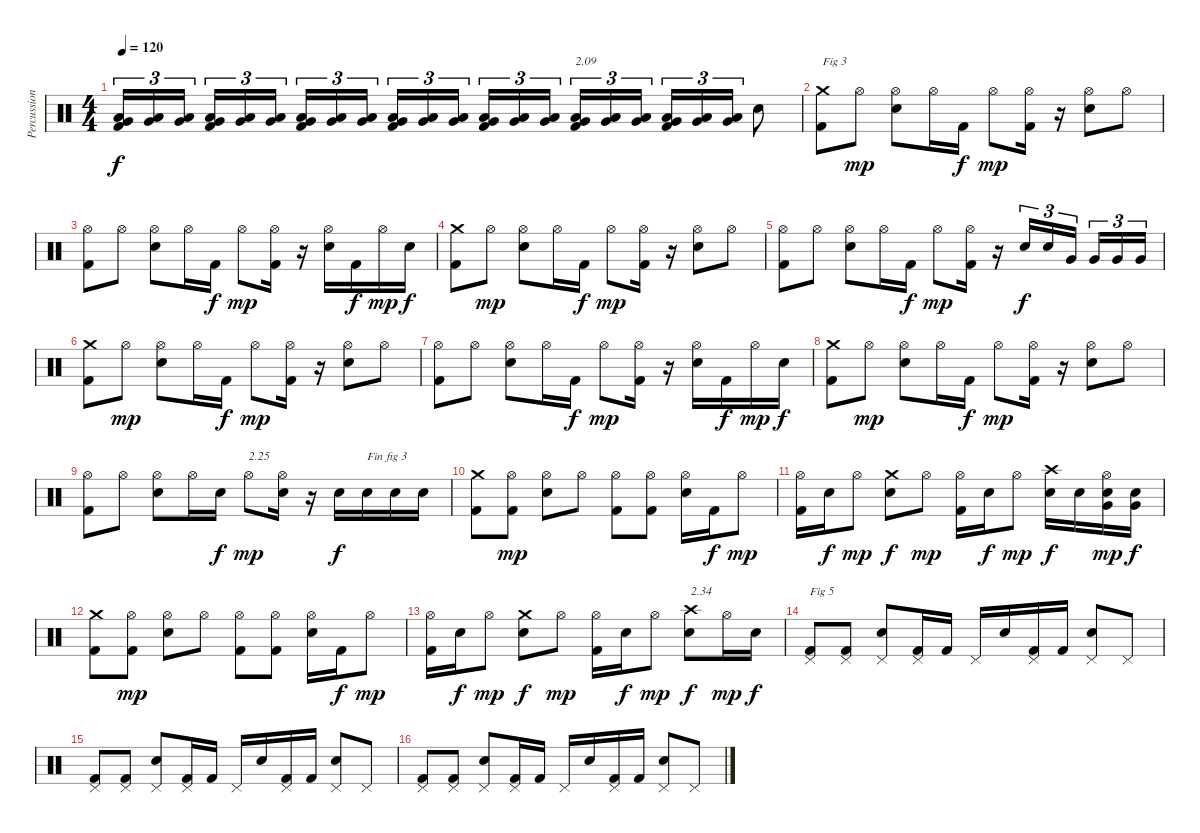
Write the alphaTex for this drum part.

\track ("Percussions" "Percussion") {instrument percussion}
\staff {score}
\articulation defaults
\ts (4 4)
\tempo 120
\clef neutral
\ks c
("Kick (hit) 2" "Very Low Tom (hit)" "Low Floor Tom (hit)").16{tu (3 2) dy f} ("Very Low Tom (hit)" "Low Floor Tom (hit)").16{tu (3 2)} ("Very Low Tom (hit)" "Low Floor Tom (hit)").16{tu (3 2)} ("Kick (hit) 2" "Very Low Tom (hit)" "Low Floor Tom (hit)").16{tu (3 2)} ("Very Low Tom (hit)" "Low Floor Tom (hit)").16{tu (3 2)} ("Very Low Tom (hit)" "Low Floor Tom (hit)").16{tu (3 2)} ("Kick (hit) 2" "Very Low Tom (hit)" "Low Floor Tom (hit)").16{tu (3 2)} ("Very Low Tom (hit)" "Low Floor Tom (hit)").16{tu (3 2)} ("Very Low Tom (hit)" "Low Floor Tom (hit)").16{tu (3 2)} ("Kick (hit) 2" "Very Low Tom (hit)" "Low Floor Tom (hit)").16{tu (3 2)} ("Very Low Tom (hit)" "Low Floor Tom (hit)").16{tu (3 2)} ("Very Low Tom (hit)" "Low Floor Tom (hit)").16{tu (3 2)} ("Kick (hit) 2" "Very Low Tom (hit)" "Low Floor Tom (hit)").16{tu (3 2)} ("Very Low Tom (hit)" "Low Floor Tom (hit)").16{tu (3 2)} ("Very Low Tom (hit)" "Low Floor Tom (hit)").16{tu (3 2)} ("Kick (hit) 2" "Very Low Tom (hit)" "Low Floor Tom (hit)").16{tu (3 2) txt "2.09"} ("Very Low Tom (hit)" "Low Floor Tom (hit)").16{tu (3 2)} ("Very Low Tom (hit)" "Low Floor Tom (hit)").16{tu (3 2)} ("Kick (hit) 2" "Very Low Tom (hit)" "Low Floor Tom (hit)").16{tu (3 2)} ("Very Low Tom (hit)" "Low Floor Tom (hit)").16{tu (3 2)} ("Very Low Tom (hit)" "Low Floor Tom (hit)").16{tu (3 2)} "Electric Snare (hit)".8 |
("Kick (hit) 2" "Crash medium (hit)").8{txt "Fig 3"} "Hi-Hat (open)".8{dy mp} ("Electric Snare (hit)" "Hi-Hat (open)").8 "Hi-Hat (open)".16 "Kick (hit) 2".16{dy f} "Hi-Hat (open)".8{dy mp} ("Kick (hit) 2" "Hi-Hat (open)").16 r.16 ("Electric Snare (hit)" "Hi-Hat (open)").8 "Hi-Hat (open)".8 |
("Kick (hit) 2" "Hi-Hat (open)").8 "Hi-Hat (open)".8 ("Electric Snare (hit)" "Hi-Hat (open)").8 "Hi-Hat (open)".16 "Kick (hit) 2".16{dy f} "Hi-Hat (open)".8{dy mp} ("Kick (hit) 2" "Hi-Hat (open)").16 r.16 ("Electric Snare (hit)" "Hi-Hat (open)").16 "Kick (hit) 2".16{dy f} "Hi-Hat (open)".16{dy mp} "Electric Snare (hit)".16{dy f} |
("Kick (hit) 2" "Crash medium (hit)").8 "Hi-Hat (open)".8{dy mp} ("Electric Snare (hit)" "Hi-Hat (open)").8 "Hi-Hat (open)".16 "Kick (hit) 2".16{dy f} "Hi-Hat (open)".8{dy mp} ("Kick (hit) 2" "Hi-Hat (open)").16 r.16 ("Electric Snare (hit)" "Hi-Hat (open)").8 "Hi-Hat (open)".8 |
("Kick (hit) 2" "Hi-Hat (open)").8 "Hi-Hat (open)".8 ("Electric Snare (hit)" "Hi-Hat (open)").8 "Hi-Hat (open)".16 "Kick (hit) 2".16{dy f} "Hi-Hat (open)".8{dy mp} ("Kick (hit) 2" "Hi-Hat (open)").16 r.16 "Electric Snare (hit)".16{tu (3 2) dy f} "Electric Snare (hit)".16{tu (3 2)} "Very Low Tom (hit)".16{tu (3 2)} "Very Low Tom (hit)".16{tu (3 2)} "Very Low Tom (hit)".16{tu (3 2)} "Very Low Tom (hit)".16{tu (3 2)} |
("Kick (hit) 2" "Crash medium (hit)").8 "Hi-Hat (open)".8{dy mp} ("Electric Snare (hit)" "Hi-Hat (open)").8 "Hi-Hat (open)".16 "Kick (hit) 2".16{dy f} "Hi-Hat (open)".8{dy mp} ("Kick (hit) 2" "Hi-Hat (open)").16 r.16 ("Electric Snare (hit)" "Hi-Hat (open)").8 "Hi-Hat (open)".8 |
("Kick (hit) 2" "Hi-Hat (open)").8 "Hi-Hat (open)".8 ("Electric Snare (hit)" "Hi-Hat (open)").8 "Hi-Hat (open)".16 "Kick (hit) 2".16{dy f} "Hi-Hat (open)".8{dy mp} ("Kick (hit) 2" "Hi-Hat (open)").16 r.16 ("Electric Snare (hit)" "Hi-Hat (open)").16 "Kick (hit) 2".16{dy f} "Hi-Hat (open)".16{dy mp} "Electric Snare (hit)".16{dy f} |
("Kick (hit) 2" "Crash medium (hit)").8 "Hi-Hat (open)".8{dy mp} ("Electric Snare (hit)" "Hi-Hat (open)").8 "Hi-Hat (open)".16 "Kick (hit) 2".16{dy f} "Hi-Hat (open)".8{dy mp} ("Kick (hit) 2" "Hi-Hat (open)").16 r.16 ("Electric Snare (hit)" "Hi-Hat (open)").8 "Hi-Hat (open)".8 |
("Kick (hit) 2" "Hi-Hat (open)").8 "Hi-Hat (open)".8 ("Electric Snare (hit)" "Hi-Hat (open)").8 "Hi-Hat (open)".16 "Electric Snare (hit)".16{dy f} "Hi-Hat (open)".8{txt "2.25" dy mp} ("Electric Snare (hit)" "Hi-Hat (open)").16 r.16 "Electric Snare (hit)".16{dy f} "Electric Snare (hit)".16{txt "Fin fig 3"} "Electric Snare (hit)".16 "Electric Snare (hit)".16 |
("Kick (hit) 2" "Crash medium (hit)").8 ("Kick (hit) 2" "Hi-Hat (open)").8{dy mp} ("Electric Snare (hit)" "Hi-Hat (open)").8 "Hi-Hat (open)".8 ("Kick (hit) 2" "Hi-Hat (open)").8 ("Kick (hit) 2" "Hi-Hat (open)").8 ("Electric Snare (hit)" "Hi-Hat (open)").16 "Kick (hit) 2".16{dy f} "Hi-Hat (open)".8{dy mp} |
("Kick (hit) 2" "Hi-Hat (open)").16 "Electric Snare (hit)".16{dy f} "Hi-Hat (open)".8{dy mp} ("Electric Snare (hit)" "Crash medium (hit)").8{dy f} "Hi-Hat (open)".8{dy mp} ("Kick (hit) 2" "Hi-Hat (open)").16 "Electric Snare (hit)".16{dy f} "Hi-Hat (open)".8{dy mp} ("Electric Snare (hit)" "Crash high (hit)").16{dy f} "Electric Snare (hit)".16 ("Electric Snare (hit)" "Very Low Tom (hit)" "Hi-Hat (open)").16{dy mp} ("Electric Snare (hit)" "Very Low Tom (hit)").16{dy f} |
("Kick (hit) 2" "Crash medium (hit)").8 ("Kick (hit) 2" "Hi-Hat (open)").8{dy mp} ("Electric Snare (hit)" "Hi-Hat (open)").8 "Hi-Hat (open)".8 ("Kick (hit) 2" "Hi-Hat (open)").8 ("Kick (hit) 2" "Hi-Hat (open)").8 ("Electric Snare (hit)" "Hi-Hat (open)").16 "Kick (hit) 2".16{dy f} "Hi-Hat (open)".8{dy mp} |
("Kick (hit) 2" "Hi-Hat (open)").16 "Electric Snare (hit)".16{dy f} "Hi-Hat (open)".8{dy mp} ("Electric Snare (hit)" "Crash medium (hit)").8{dy f} "Hi-Hat (open)".8{dy mp} ("Kick (hit) 2" "Hi-Hat (open)").16 "Electric Snare (hit)".16{dy f} "Hi-Hat (open)".8{dy mp} ("Electric Snare (hit)" "Crash high (hit)").8{txt "2.34" dy f} "Hi-Hat (open)".16{dy mp} "Electric Snare (hit)".16{dy f} |
("Kick (hit) 2" "Pedal Hi-Hat (hit)").8{txt "Fig 5"} ("Kick (hit) 2" "Pedal Hi-Hat (hit)").8 ("Electric Snare (hit)" "Pedal Hi-Hat (hit)").8 ("Kick (hit) 2" "Pedal Hi-Hat (hit)").16 "Kick (hit) 2".16 "Pedal Hi-Hat (hit)".16 "Electric Snare (hit)".16 ("Kick (hit) 2" "Pedal Hi-Hat (hit)").16 "Kick (hit) 2".16 ("Electric Snare (hit)" "Pedal Hi-Hat (hit)").8 "Pedal Hi-Hat (hit)".8 |
("Kick (hit) 2" "Pedal Hi-Hat (hit)").8 ("Kick (hit) 2" "Pedal Hi-Hat (hit)").8 ("Electric Snare (hit)" "Pedal Hi-Hat (hit)").8 ("Kick (hit) 2" "Pedal Hi-Hat (hit)").16 "Kick (hit) 2".16 "Pedal Hi-Hat (hit)".16 "Electric Snare (hit)".16 ("Kick (hit) 2" "Pedal Hi-Hat (hit)").16 "Kick (hit) 2".16 ("Electric Snare (hit)" "Pedal Hi-Hat (hit)").8 "Pedal Hi-Hat (hit)".8 |
("Kick (hit) 2" "Pedal Hi-Hat (hit)").8 ("Kick (hit) 2" "Pedal Hi-Hat (hit)").8 ("Electric Snare (hit)" "Pedal Hi-Hat (hit)").8 ("Kick (hit) 2" "Pedal Hi-Hat (hit)").16 "Kick (hit) 2".16 "Pedal Hi-Hat (hit)".16 "Electric Snare (hit)".16 ("Kick (hit) 2" "Pedal Hi-Hat (hit)").16 "Kick (hit) 2".16 ("Electric Snare (hit)" "Pedal Hi-Hat (hit)").8 "Pedal Hi-Hat (hit)".8
